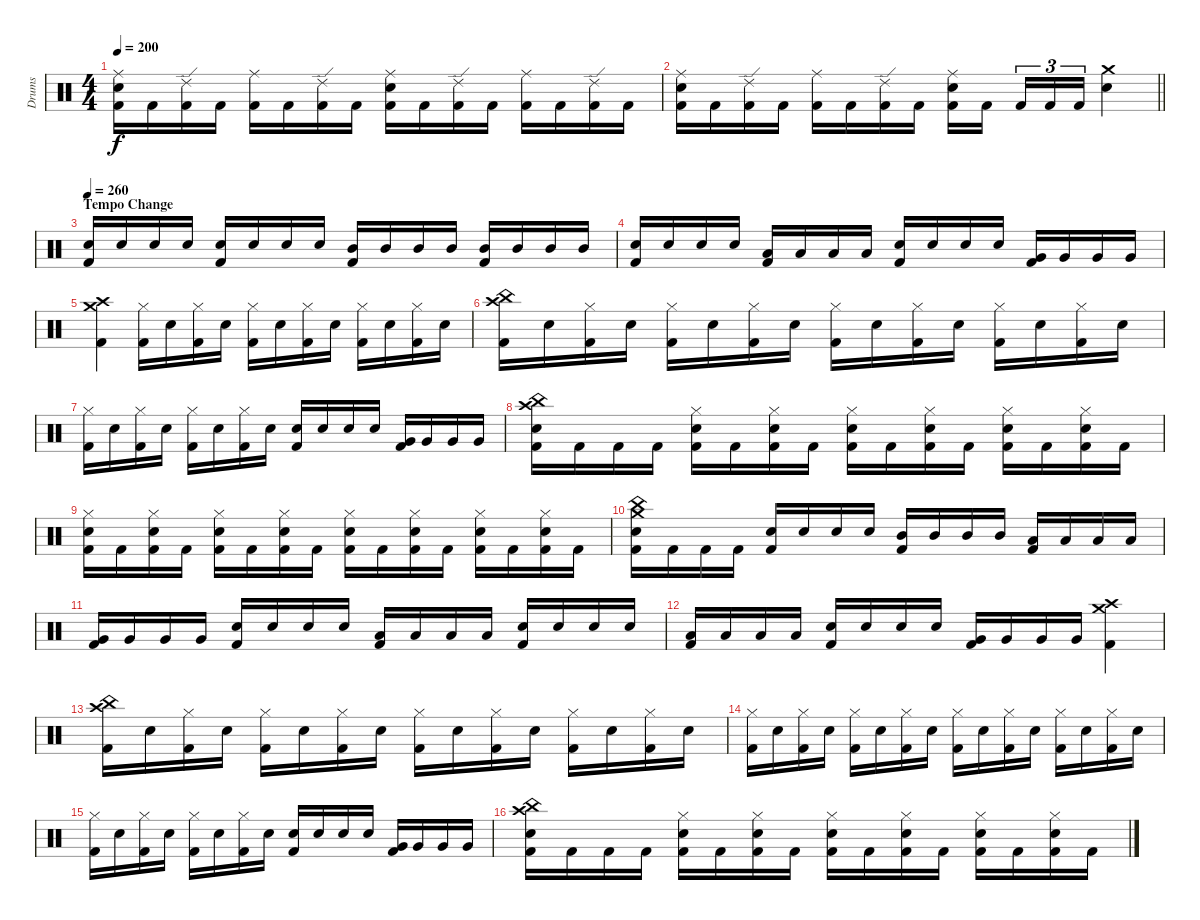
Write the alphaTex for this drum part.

\track ("Drums" "Drums") {instrument percussion}
\staff {score}
\articulation defaults
\ts (4 4)
\tempo 200
\clef neutral
\ks c
("Ride (middle)" "Electric Snare (hit)" "Kick (hit) 2").16{dy f} "Kick (hit) 2".16 ("Ride (edge) 2" "Kick (hit) 2").16 "Kick (hit) 2".16 ("Ride (middle)" "Kick (hit) 2").16 "Kick (hit) 2".16 ("Ride (edge) 2" "Kick (hit) 2").16 "Kick (hit) 2".16 ("Ride (middle)" "Electric Snare (hit)" "Kick (hit) 2").16 "Kick (hit) 2".16 ("Ride (edge) 2" "Kick (hit) 2").16 "Kick (hit) 2".16 ("Ride (middle)" "Kick (hit) 2").16 "Kick (hit) 2".16 ("Ride (edge) 2" "Kick (hit) 2").16 "Kick (hit) 2".16 |
\barLineRight lightlight
("Ride (middle)" "Electric Snare (hit)" "Kick (hit) 2").16 "Kick (hit) 2".16 ("Ride (edge) 2" "Kick (hit) 2").16 "Kick (hit) 2".16 ("Ride (middle)" "Kick (hit) 2").16 "Kick (hit) 2".16 ("Ride (edge) 2" "Kick (hit) 2").16 "Kick (hit) 2".16 ("Ride (middle)" "Electric Snare (hit)" "Kick (hit) 2").16 "Kick (hit) 2".16{beam splitsecondary} "Kick (hit) 2".16{tu (3 2)} "Kick (hit) 2".16{tu (3 2)} "Kick (hit) 2".16{tu (3 2)} ("Crash medium (hit)" "Electric Snare (hit)").4 |
\section ("" "Tempo Change")
\tempo 260
("Electric Snare (hit)" "Kick (hit) 2").16 "Electric Snare (hit)".16 "Electric Snare (hit)".16 "Electric Snare (hit)".16 ("Electric Snare (hit)" "Kick (hit) 2").16 "Electric Snare (hit)".16 "Electric Snare (hit)".16 "Electric Snare (hit)".16 ("Mid Tom (hit)" "Kick (hit) 2").16 "Mid Tom (hit)".16 "Mid Tom (hit)".16 "Mid Tom (hit)".16 ("Mid Tom (hit)" "Kick (hit) 2").16 "Mid Tom (hit)".16 "Mid Tom (hit)".16 "Mid Tom (hit)".16 |
("Electric Snare (hit)" "Kick (hit) 2").16 "Electric Snare (hit)".16 "Electric Snare (hit)".16 "Electric Snare (hit)".16 ("Low Tom (hit)" "Kick (hit) 2").16 "Low Tom (hit)".16 "Low Tom (hit)".16 "Low Tom (hit)".16 ("Electric Snare (hit)" "Kick (hit) 2").16 "Electric Snare (hit)".16 "Electric Snare (hit)".16 "Electric Snare (hit)".16 ("Very Low Tom (hit)" "Kick (hit) 2").16 "Very Low Tom (hit)".16 "Very Low Tom (hit)".16 "Very Low Tom (hit)".16 |
("Crash high (hit)" "Crash medium (hit)" "Kick (hit) 2").4 ("Hi-Hat (closed)" "Kick (hit) 2").16 "Electric Snare (hit)".16 ("Hi-Hat (closed)" "Kick (hit) 2").16 "Electric Snare (hit)".16 ("Hi-Hat (closed)" "Kick (hit) 2").16 "Electric Snare (hit)".16 ("Hi-Hat (closed)" "Kick (hit) 2").16 "Electric Snare (hit)".16 ("Hi-Hat (closed)" "Kick (hit) 2").16 "Electric Snare (hit)".16 ("Hi-Hat (closed)" "Kick (hit) 2").16 "Electric Snare (hit)".16 |
("Crash high (hit)" "China (hit)" "Kick (hit) 2").16 "Electric Snare (hit)".16 ("Hi-Hat (closed)" "Kick (hit) 2").16 "Electric Snare (hit)".16 ("Hi-Hat (closed)" "Kick (hit) 2").16 "Electric Snare (hit)".16 ("Hi-Hat (closed)" "Kick (hit) 2").16 "Electric Snare (hit)".16 ("Hi-Hat (closed)" "Kick (hit) 2").16 "Electric Snare (hit)".16 ("Hi-Hat (closed)" "Kick (hit) 2").16 "Electric Snare (hit)".16 ("Hi-Hat (closed)" "Kick (hit) 2").16 "Electric Snare (hit)".16 ("Hi-Hat (closed)" "Kick (hit) 2").16 "Electric Snare (hit)".16 |
("Hi-Hat (closed)" "Kick (hit) 2").16 "Electric Snare (hit)".16 ("Hi-Hat (closed)" "Kick (hit) 2").16 "Electric Snare (hit)".16 ("Hi-Hat (closed)" "Kick (hit) 2").16 "Electric Snare (hit)".16 ("Hi-Hat (closed)" "Kick (hit) 2").16 "Electric Snare (hit)".16 ("Electric Snare (hit)" "Kick (hit) 2").16 "Electric Snare (hit)".16 "Electric Snare (hit)".16 "Electric Snare (hit)".16 ("Very Low Tom (hit)" "Kick (hit) 2").16 "Very Low Tom (hit)".16 "Very Low Tom (hit)".16 "Very Low Tom (hit)".16 |
("Crash high (hit)" "China (hit)" "Electric Snare (hit)" "Kick (hit) 2").16 "Kick (hit) 2".16 "Kick (hit) 2".16 "Kick (hit) 2".16 ("Hi-Hat (closed)" "Electric Snare (hit)" "Kick (hit) 2").16 "Kick (hit) 2".16 ("Hi-Hat (closed)" "Electric Snare (hit)" "Kick (hit) 2").16 "Kick (hit) 2".16 ("Hi-Hat (closed)" "Electric Snare (hit)" "Kick (hit) 2").16 "Kick (hit) 2".16 ("Hi-Hat (closed)" "Electric Snare (hit)" "Kick (hit) 2").16 "Kick (hit) 2".16 ("Hi-Hat (closed)" "Electric Snare (hit)" "Kick (hit) 2").16 "Kick (hit) 2".16 ("Hi-Hat (closed)" "Electric Snare (hit)" "Kick (hit) 2").16 "Kick (hit) 2".16 |
("Hi-Hat (closed)" "Electric Snare (hit)" "Kick (hit) 2").16 "Kick (hit) 2".16 ("Hi-Hat (closed)" "Electric Snare (hit)" "Kick (hit) 2").16 "Kick (hit) 2".16 ("Hi-Hat (closed)" "Electric Snare (hit)" "Kick (hit) 2").16 "Kick (hit) 2".16 ("Hi-Hat (closed)" "Electric Snare (hit)" "Kick (hit) 2").16 "Kick (hit) 2".16 ("Hi-Hat (closed)" "Electric Snare (hit)" "Kick (hit) 2").16 "Kick (hit) 2".16 ("Hi-Hat (closed)" "Electric Snare (hit)" "Kick (hit) 2").16 "Kick (hit) 2".16 ("Hi-Hat (closed)" "Electric Snare (hit)" "Kick (hit) 2").16 "Kick (hit) 2".16 ("Hi-Hat (closed)" "Electric Snare (hit)" "Kick (hit) 2").16 "Kick (hit) 2".16 |
("Crash medium (hit)" "China (hit)" "Electric Snare (hit)" "Kick (hit) 2").16 "Kick (hit) 2".16 "Kick (hit) 2".16 "Kick (hit) 2".16 ("Electric Snare (hit)" "Kick (hit) 2").16 "Electric Snare (hit)".16 "Electric Snare (hit)".16 "Electric Snare (hit)".16 ("Mid Tom (hit)" "Kick (hit) 2").16 "Mid Tom (hit)".16 "Mid Tom (hit)".16 "Mid Tom (hit)".16 ("Low Tom (hit)" "Kick (hit) 2").16 "Low Tom (hit)".16 "Low Tom (hit)".16 "Low Tom (hit)".16 |
("Very Low Tom (hit)" "Kick (hit) 2").16 "Very Low Tom (hit)".16 "Very Low Tom (hit)".16 "Very Low Tom (hit)".16 ("Electric Snare (hit)" "Kick (hit) 2").16 "Electric Snare (hit)".16 "Electric Snare (hit)".16 "Electric Snare (hit)".16 ("Low Tom (hit)" "Kick (hit) 2").16 "Low Tom (hit)".16 "Low Tom (hit)".16 "Low Tom (hit)".16 ("Electric Snare (hit)" "Kick (hit) 2").16 "Electric Snare (hit)".16 "Electric Snare (hit)".16 "Electric Snare (hit)".16 |
("Low Tom (hit)" "Kick (hit) 2").16 "Low Tom (hit)".16 "Low Tom (hit)".16 "Low Tom (hit)".16 ("Electric Snare (hit)" "Kick (hit) 2").16 "Electric Snare (hit)".16 "Electric Snare (hit)".16 "Electric Snare (hit)".16 ("Very Low Tom (hit)" "Kick (hit) 2").16 "Very Low Tom (hit)".16 "Very Low Tom (hit)".16 "Very Low Tom (hit)".16 ("Crash high (hit)" "Crash medium (hit)" "Kick (hit) 2").4 |
("Crash high (hit)" "China (hit)" "Kick (hit) 2").16 "Electric Snare (hit)".16 ("Hi-Hat (closed)" "Kick (hit) 2").16 "Electric Snare (hit)".16 ("Hi-Hat (closed)" "Kick (hit) 2").16 "Electric Snare (hit)".16 ("Hi-Hat (closed)" "Kick (hit) 2").16 "Electric Snare (hit)".16 ("Hi-Hat (closed)" "Kick (hit) 2").16 "Electric Snare (hit)".16 ("Hi-Hat (closed)" "Kick (hit) 2").16 "Electric Snare (hit)".16 ("Hi-Hat (closed)" "Kick (hit) 2").16 "Electric Snare (hit)".16 ("Hi-Hat (closed)" "Kick (hit) 2").16 "Electric Snare (hit)".16 |
("Hi-Hat (closed)" "Kick (hit) 2").16 "Electric Snare (hit)".16 ("Hi-Hat (closed)" "Kick (hit) 2").16 "Electric Snare (hit)".16 ("Hi-Hat (closed)" "Kick (hit) 2").16 "Electric Snare (hit)".16 ("Hi-Hat (closed)" "Kick (hit) 2").16 "Electric Snare (hit)".16 ("Hi-Hat (closed)" "Kick (hit) 2").16 "Electric Snare (hit)".16 ("Hi-Hat (closed)" "Kick (hit) 2").16 "Electric Snare (hit)".16 ("Hi-Hat (closed)" "Kick (hit) 2").16 "Electric Snare (hit)".16 ("Hi-Hat (closed)" "Kick (hit) 2").16 "Electric Snare (hit)".16 |
("Hi-Hat (closed)" "Kick (hit) 2").16 "Electric Snare (hit)".16 ("Hi-Hat (closed)" "Kick (hit) 2").16 "Electric Snare (hit)".16 ("Hi-Hat (closed)" "Kick (hit) 2").16 "Electric Snare (hit)".16 ("Hi-Hat (closed)" "Kick (hit) 2").16 "Electric Snare (hit)".16 ("Electric Snare (hit)" "Kick (hit) 2").16 "Electric Snare (hit)".16 "Electric Snare (hit)".16 "Electric Snare (hit)".16 ("Very Low Tom (hit)" "Kick (hit) 2").16 "Very Low Tom (hit)".16 "Very Low Tom (hit)".16 "Very Low Tom (hit)".16 |
("Crash high (hit)" "China (hit)" "Electric Snare (hit)" "Kick (hit) 2").16 "Kick (hit) 2".16 "Kick (hit) 2".16 "Kick (hit) 2".16 ("Hi-Hat (closed)" "Electric Snare (hit)" "Kick (hit) 2").16 "Kick (hit) 2".16 ("Hi-Hat (closed)" "Electric Snare (hit)" "Kick (hit) 2").16 "Kick (hit) 2".16 ("Hi-Hat (closed)" "Electric Snare (hit)" "Kick (hit) 2").16 "Kick (hit) 2".16 ("Hi-Hat (closed)" "Electric Snare (hit)" "Kick (hit) 2").16 "Kick (hit) 2".16 ("Hi-Hat (closed)" "Electric Snare (hit)" "Kick (hit) 2").16 "Kick (hit) 2".16 ("Hi-Hat (closed)" "Electric Snare (hit)" "Kick (hit) 2").16 "Kick (hit) 2".16
